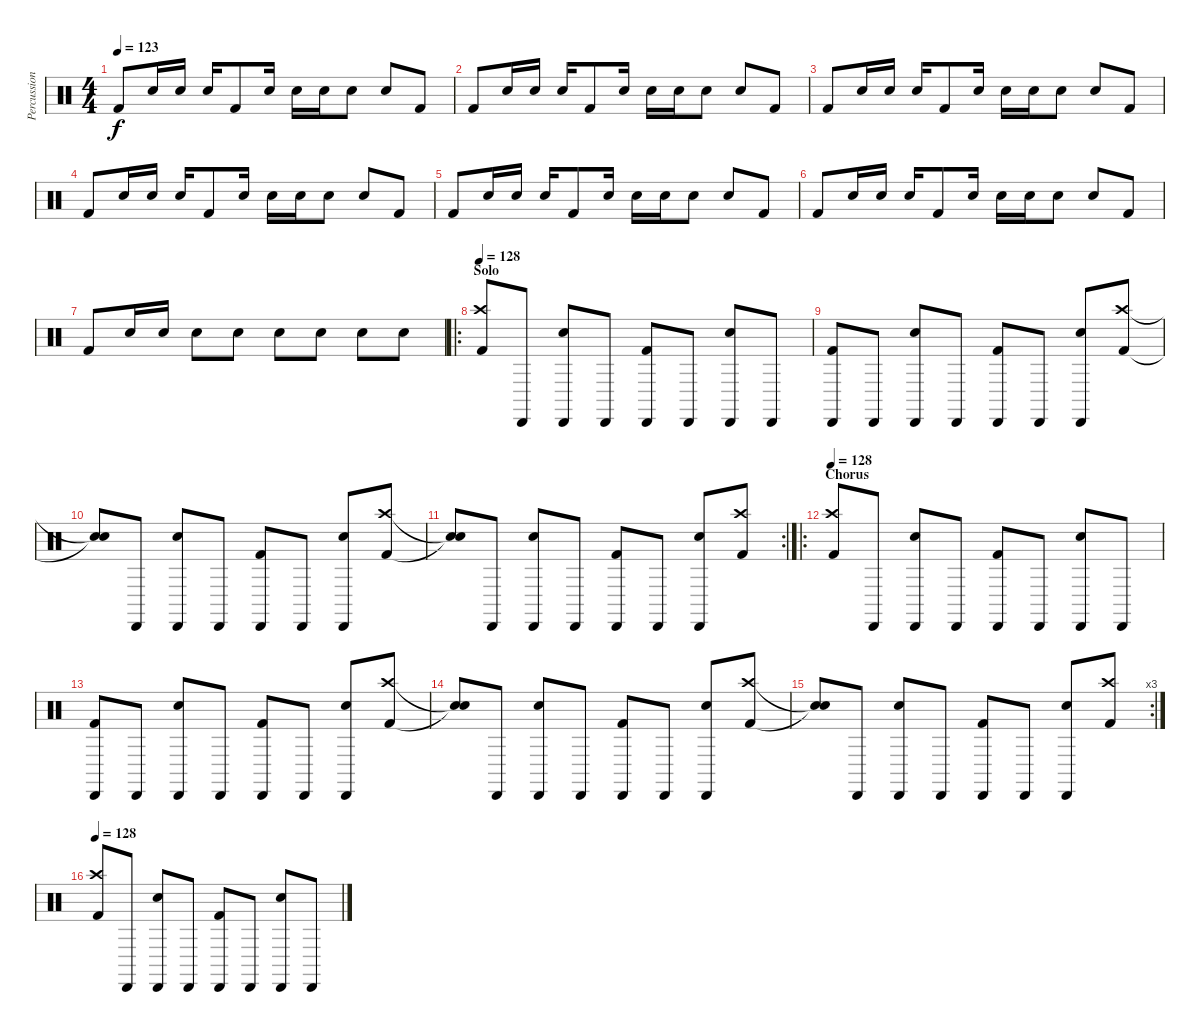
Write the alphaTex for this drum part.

\track ("Percussion" "Percussion") {instrument percussion}
\staff {score}
\articulation defaults
\ts (4 4)
\tempo 123
\clef neutral
\ks c "Kick (hit) 2".8{dy f} "Snare (hit) 2".16 "Snare (hit) 2".16 "Snare (hit) 2".16 "Kick (hit) 2".8 "Snare (hit) 2".16 "Snare (hit) 2".16 "Snare (hit) 2".16 "Snare (hit) 2".8 "Snare (hit) 2".8 "Kick (hit) 2".8
|
"Kick (hit) 2".8 "Snare (hit) 2".16 "Snare (hit) 2".16 "Snare (hit) 2".16 "Kick (hit) 2".8 "Snare (hit) 2".16 "Snare (hit) 2".16 "Snare (hit) 2".16 "Snare (hit) 2".8 "Snare (hit) 2".8 "Kick (hit) 2".8 |
"Kick (hit) 2".8 "Snare (hit) 2".16 "Snare (hit) 2".16 "Snare (hit) 2".16 "Kick (hit) 2".8 "Snare (hit) 2".16 "Snare (hit) 2".16 "Snare (hit) 2".16 "Snare (hit) 2".8 "Snare (hit) 2".8 "Kick (hit) 2".8 |
"Kick (hit) 2".8 "Snare (hit) 2".16 "Snare (hit) 2".16 "Snare (hit) 2".16 "Kick (hit) 2".8 "Snare (hit) 2".16 "Snare (hit) 2".16 "Snare (hit) 2".16 "Snare (hit) 2".8 "Snare (hit) 2".8 "Kick (hit) 2".8 |
"Kick (hit) 2".8 "Snare (hit) 2".16 "Snare (hit) 2".16 "Snare (hit) 2".16 "Kick (hit) 2".8 "Snare (hit) 2".16 "Snare (hit) 2".16 "Snare (hit) 2".16 "Snare (hit) 2".8 "Snare (hit) 2".8 "Kick (hit) 2".8 |
"Kick (hit) 2".8 "Snare (hit) 2".16 "Snare (hit) 2".16 "Snare (hit) 2".16 "Kick (hit) 2".8 "Snare (hit) 2".16 "Snare (hit) 2".16 "Snare (hit) 2".16 "Snare (hit) 2".8 "Snare (hit) 2".8 "Kick (hit) 2".8 |
"Kick (hit) 2".8 "Snare (hit) 2".16 "Snare (hit) 2".16 "Snare (hit) 2".8 "Snare (hit) 2".8 "Snare (hit) 2".8 "Snare (hit) 2".8 "Snare (hit) 2".8 "Snare (hit) 2".8 |
\ro
\section ("" "Solo")
\tempo 128
("Kick (hit) 2" "Crash high (hit)").8 "Cabasa (hit)".8 ("Snare (hit) 2" "Cabasa (hit)").8 "Cabasa (hit)".8 ("Kick (hit) 2" "Cabasa (hit)").8 "Cabasa (hit)".8 ("Snare (hit) 2" "Cabasa (hit)").8 "Cabasa (hit)".8 |
("Kick (hit) 2" "Cabasa (hit)").8 "Cabasa (hit)".8 ("Snare (hit) 2" "Cabasa (hit)").8 "Cabasa (hit)".8 ("Kick (hit) 2" "Cabasa (hit)").8 "Cabasa (hit)".8 ("Snare (hit) 2" "Cabasa (hit)").8 ("Kick (hit) 2" "Crash high (hit)").8 |
("Snare (hit)"{t} "Snare (hit)"{t}).8 "Cabasa (hit)".8 ("Snare (hit) 2" "Cabasa (hit)").8 "Cabasa (hit)".8 ("Kick (hit) 2" "Cabasa (hit)").8 "Cabasa (hit)".8 ("Snare (hit) 2" "Cabasa (hit)").8 ("Kick (hit) 2" "Crash high (hit)").8 |
\rc 2
("Snare (hit)"{t} "Snare (hit)"{t}).8 "Cabasa (hit)".8 ("Snare (hit) 2" "Cabasa (hit)").8 "Cabasa (hit)".8 ("Kick (hit) 2" "Cabasa (hit)").8 "Cabasa (hit)".8 ("Snare (hit) 2" "Cabasa (hit)").8 ("Kick (hit) 2" "Crash high (hit)").8 |
\ro
\section ("" "Chorus")
\tempo 128
("Kick (hit) 2" "Crash high (hit)").8 "Cabasa (hit)".8 ("Snare (hit) 2" "Cabasa (hit)").8 "Cabasa (hit)".8 ("Kick (hit) 2" "Cabasa (hit)").8 "Cabasa (hit)".8 ("Snare (hit) 2" "Cabasa (hit)").8 "Cabasa (hit)".8 |
("Kick (hit) 2" "Cabasa (hit)").8 "Cabasa (hit)".8 ("Snare (hit) 2" "Cabasa (hit)").8 "Cabasa (hit)".8 ("Kick (hit) 2" "Cabasa (hit)").8 "Cabasa (hit)".8 ("Snare (hit) 2" "Cabasa (hit)").8 ("Kick (hit) 2" "Crash high (hit)").8 |
("Snare (hit)"{t} "Snare (hit)"{t}).8 "Cabasa (hit)".8 ("Snare (hit) 2" "Cabasa (hit)").8 "Cabasa (hit)".8 ("Kick (hit) 2" "Cabasa (hit)").8 "Cabasa (hit)".8 ("Snare (hit) 2" "Cabasa (hit)").8 ("Kick (hit) 2" "Crash high (hit)").8 |
\rc 3
("Snare (hit)"{t} "Snare (hit)"{t}).8 "Cabasa (hit)".8 ("Snare (hit) 2" "Cabasa (hit)").8 "Cabasa (hit)".8 ("Kick (hit) 2" "Cabasa (hit)").8 "Cabasa (hit)".8 ("Snare (hit) 2" "Cabasa (hit)").8 ("Kick (hit) 2" "Crash high (hit)").8 |
\tempo 128
("Kick (hit) 2" "Crash high (hit)").8 "Cabasa (hit)".8 ("Snare (hit) 2" "Cabasa (hit)").8 "Cabasa (hit)".8 ("Kick (hit) 2" "Cabasa (hit)").8 "Cabasa (hit)".8 ("Snare (hit) 2" "Cabasa (hit)").8 "Cabasa (hit)".8
